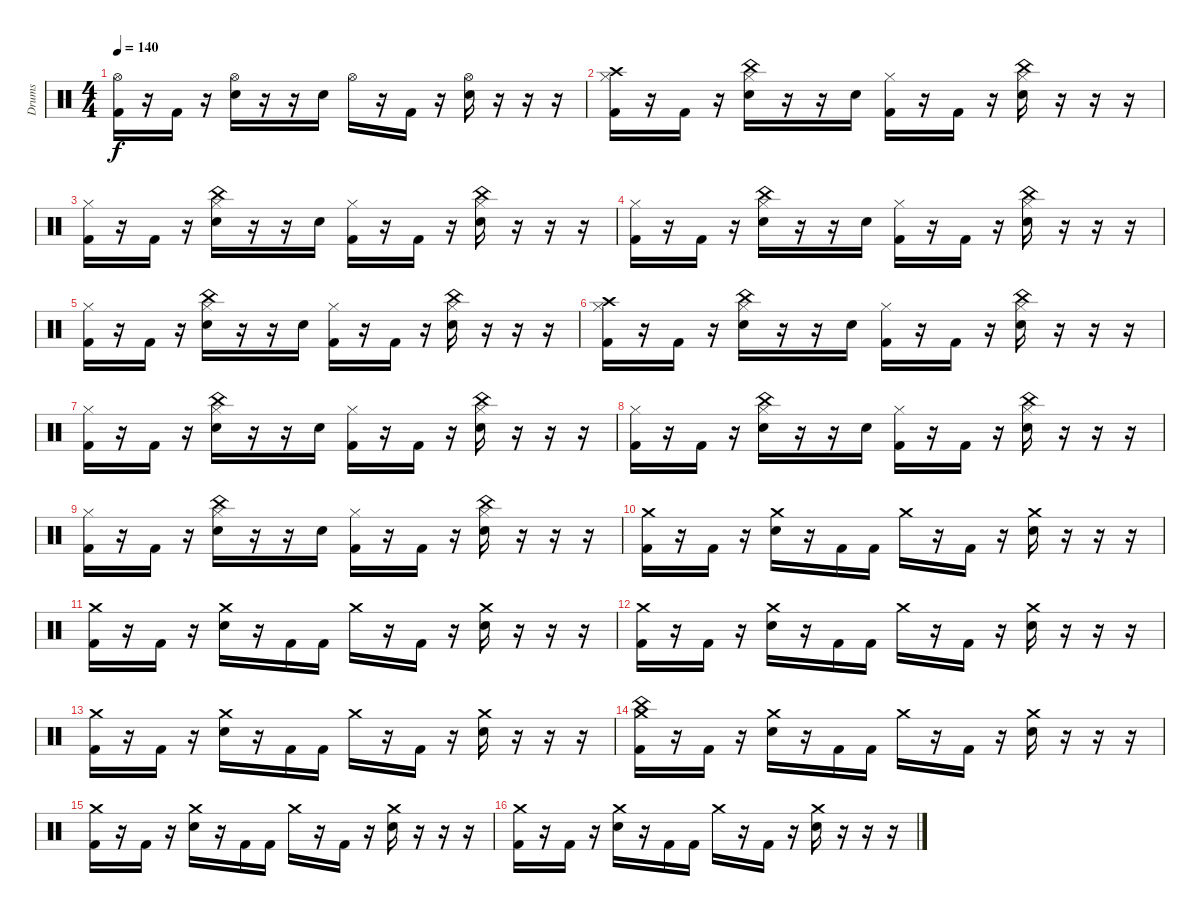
\track ("Drums" "Drums") {instrument percussion}
\staff {score}
\articulation defaults
\ts (4 4)
\tempo 140
\clef neutral
\ks c
("Kick (hit) 2" "Hi-Hat (open)").16{dy f} r.16 "Kick (hit) 2".16 r.16 ("Electric Snare (hit)" "Hi-Hat (open)").16 r.16 r.16 "Electric Snare (hit)".16 "Hi-Hat (open)".16 r.16 "Kick (hit) 2".16 r.16 ("Electric Snare (hit)" "Hi-Hat (open)").16 r.16 r.16 r.16 |
("Kick (hit) 2" "Crash high (hit)" "Hi-Hat (closed)").16 r.16 "Kick (hit) 2".16 r.16 ("Electric Snare (hit)" "China (hit)" "Hi-Hat (closed)").16 r.16 r.16 "Electric Snare (hit)".16 ("Kick (hit) 2" "Hi-Hat (closed)").16 r.16 "Kick (hit) 2".16 r.16 ("Electric Snare (hit)" "China (hit)" "Hi-Hat (closed)").16 r.16 r.16 r.16 |
("Kick (hit) 2" "Hi-Hat (closed)").16 r.16 "Kick (hit) 2".16 r.16 ("Electric Snare (hit)" "China (hit)" "Hi-Hat (closed)").16 r.16 r.16 "Electric Snare (hit)".16 ("Kick (hit) 2" "Hi-Hat (closed)").16 r.16 "Kick (hit) 2".16 r.16 ("Electric Snare (hit)" "China (hit)" "Hi-Hat (closed)").16 r.16 r.16 r.16 |
("Kick (hit) 2" "Hi-Hat (closed)").16 r.16 "Kick (hit) 2".16 r.16 ("Electric Snare (hit)" "China (hit)" "Hi-Hat (closed)").16 r.16 r.16 "Electric Snare (hit)".16 ("Kick (hit) 2" "Hi-Hat (closed)").16 r.16 "Kick (hit) 2".16 r.16 ("Electric Snare (hit)" "China (hit)" "Hi-Hat (closed)").16 r.16 r.16 r.16 |
("Kick (hit) 2" "Hi-Hat (closed)").16 r.16 "Kick (hit) 2".16 r.16 ("Electric Snare (hit)" "China (hit)" "Hi-Hat (closed)").16 r.16 r.16 "Electric Snare (hit)".16 ("Kick (hit) 2" "Hi-Hat (closed)").16 r.16 "Kick (hit) 2".16 r.16 ("Electric Snare (hit)" "China (hit)" "Hi-Hat (closed)").16 r.16 r.16 r.16 |
("Kick (hit) 2" "Crash high (hit)" "Hi-Hat (closed)").16 r.16 "Kick (hit) 2".16 r.16 ("Electric Snare (hit)" "China (hit)" "Hi-Hat (closed)").16 r.16 r.16 "Electric Snare (hit)".16 ("Kick (hit) 2" "Hi-Hat (closed)").16 r.16 "Kick (hit) 2".16 r.16 ("Electric Snare (hit)" "China (hit)" "Hi-Hat (closed)").16 r.16 r.16 r.16 |
("Kick (hit) 2" "Hi-Hat (closed)").16 r.16 "Kick (hit) 2".16 r.16 ("Electric Snare (hit)" "China (hit)" "Hi-Hat (closed)").16 r.16 r.16 "Electric Snare (hit)".16 ("Kick (hit) 2" "Hi-Hat (closed)").16 r.16 "Kick (hit) 2".16 r.16 ("Electric Snare (hit)" "China (hit)" "Hi-Hat (closed)").16 r.16 r.16 r.16 |
("Kick (hit) 2" "Hi-Hat (closed)").16 r.16 "Kick (hit) 2".16 r.16 ("Electric Snare (hit)" "China (hit)" "Hi-Hat (closed)").16 r.16 r.16 "Electric Snare (hit)".16 ("Kick (hit) 2" "Hi-Hat (closed)").16 r.16 "Kick (hit) 2".16 r.16 ("Electric Snare (hit)" "China (hit)" "Hi-Hat (closed)").16 r.16 r.16 r.16 |
("Kick (hit) 2" "Hi-Hat (closed)").16 r.16 "Kick (hit) 2".16 r.16 ("Electric Snare (hit)" "China (hit)" "Hi-Hat (closed)").16 r.16 r.16 "Electric Snare (hit)".16 ("Kick (hit) 2" "Hi-Hat (closed)").16 r.16 "Kick (hit) 2".16 r.16 ("Electric Snare (hit)" "China (hit)" "Hi-Hat (closed)").16 r.16 r.16 r.16 |
("Kick (hit) 2" "Crash medium (hit)").16 r.16 "Kick (hit) 2".16 r.16 ("Electric Snare (hit)" "Crash medium (hit)").16 r.16 "Kick (hit) 2".16 "Kick (hit) 2".16 "Crash medium (hit)".16 r.16 "Kick (hit) 2".16 r.16 ("Electric Snare (hit)" "Crash medium (hit)").16 r.16 r.16 r.16 |
("Kick (hit) 2" "Crash medium (hit)").16 r.16 "Kick (hit) 2".16 r.16 ("Electric Snare (hit)" "Crash medium (hit)").16 r.16 "Kick (hit) 2".16 "Kick (hit) 2".16 "Crash medium (hit)".16 r.16 "Kick (hit) 2".16 r.16 ("Electric Snare (hit)" "Crash medium (hit)").16 r.16 r.16 r.16 |
("Kick (hit) 2" "Crash medium (hit)").16 r.16 "Kick (hit) 2".16 r.16 ("Electric Snare (hit)" "Crash medium (hit)").16 r.16 "Kick (hit) 2".16 "Kick (hit) 2".16 "Crash medium (hit)".16 r.16 "Kick (hit) 2".16 r.16 ("Electric Snare (hit)" "Crash medium (hit)").16 r.16 r.16 r.16 |
("Kick (hit) 2" "Crash medium (hit)").16 r.16 "Kick (hit) 2".16 r.16 ("Electric Snare (hit)" "Crash medium (hit)").16 r.16 "Kick (hit) 2".16 "Kick (hit) 2".16 "Crash medium (hit)".16 r.16 "Kick (hit) 2".16 r.16 ("Electric Snare (hit)" "Crash medium (hit)").16 r.16 r.16 r.16 |
("Kick (hit) 2" "China (hit)" "Crash medium (hit)").16 r.16 "Kick (hit) 2".16 r.16 ("Electric Snare (hit)" "Crash medium (hit)").16 r.16 "Kick (hit) 2".16 "Kick (hit) 2".16 "Crash medium (hit)".16 r.16 "Kick (hit) 2".16 r.16 ("Electric Snare (hit)" "Crash medium (hit)").16 r.16 r.16 r.16 |
("Kick (hit) 2" "Crash medium (hit)").16 r.16 "Kick (hit) 2".16 r.16 ("Electric Snare (hit)" "Crash medium (hit)").16 r.16 "Kick (hit) 2".16 "Kick (hit) 2".16 "Crash medium (hit)".16 r.16 "Kick (hit) 2".16 r.16 ("Electric Snare (hit)" "Crash medium (hit)").16 r.16 r.16 r.16 |
("Kick (hit) 2" "Crash medium (hit)").16 r.16 "Kick (hit) 2".16 r.16 ("Electric Snare (hit)" "Crash medium (hit)").16 r.16 "Kick (hit) 2".16 "Kick (hit) 2".16 "Crash medium (hit)".16 r.16 "Kick (hit) 2".16 r.16 ("Electric Snare (hit)" "Crash medium (hit)").16 r.16 r.16 r.16
